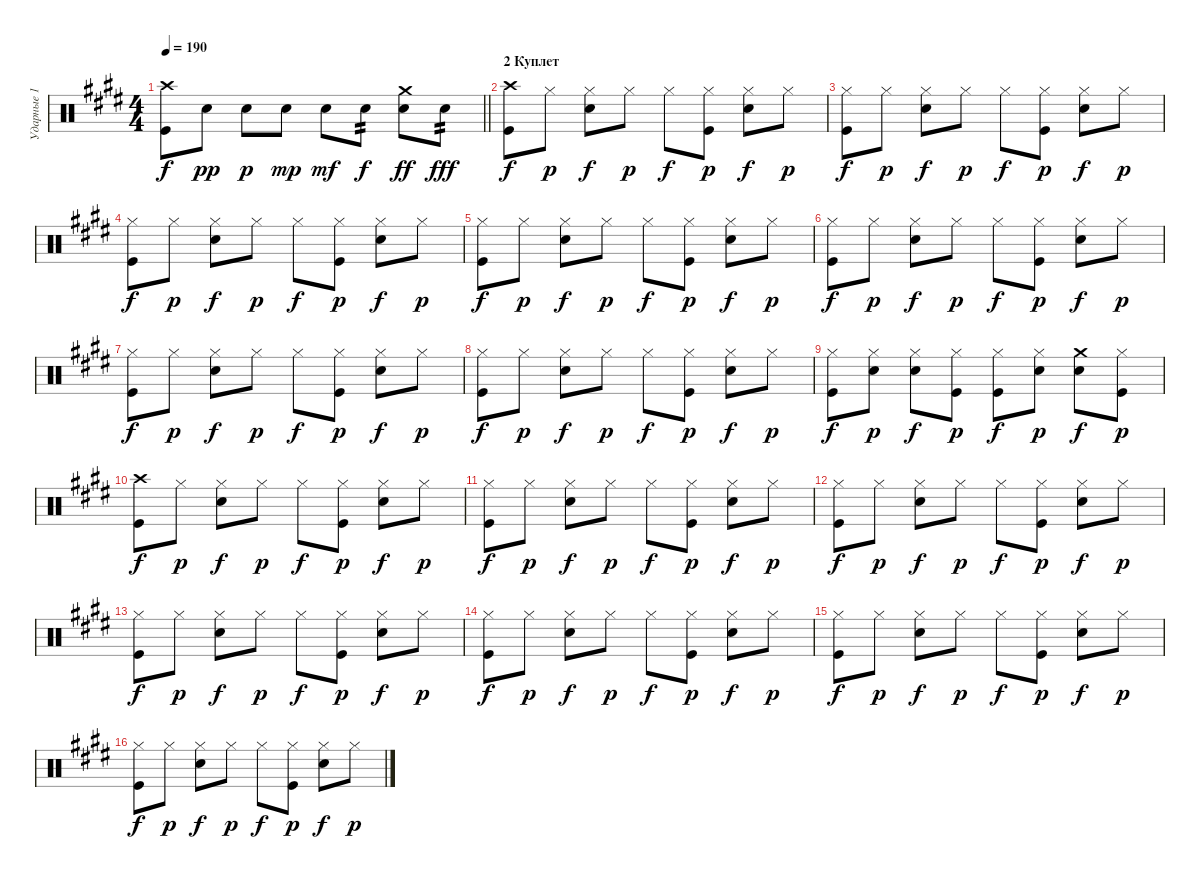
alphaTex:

\track ("Ударные 1" "Ударные 1") {instrument percussion}
\staff {score}
\articulation defaults
\ts (4 4)
\tempo 190
\clef neutral
\barLineRight lightlight
\ks c#minor
("Crash high (hit)" "Kick (hit)").8{dy f} "Snare (hit) 2".8{dy pp} "Snare (hit) 2".8{dy p} "Snare (hit) 2".8{dy mp} "Snare (hit) 2".8{dy mf} "Snare (hit) 2".8{tp 2 dy f} ("Crash medium (hit)" "Snare (hit) 2").8{dy ff} "Snare (hit) 2".8{tp 2 dy fff} |
\section ("" "2 Куплет")
("Crash high (hit)" "Kick (hit)").8{dy f} "Hi-Hat (closed)".8{dy p} ("Hi-Hat (closed)" "Snare (hit) 2").8{dy f} "Hi-Hat (closed)".8{dy p} "Hi-Hat (closed)".8{dy f} ("Hi-Hat (closed)" "Kick (hit)").8{dy p} ("Hi-Hat (closed)" "Snare (hit) 2").8{dy f} "Hi-Hat (closed)".8{dy p} |
("Hi-Hat (closed)" "Kick (hit)").8{dy f} "Hi-Hat (closed)".8{dy p} ("Hi-Hat (closed)" "Snare (hit) 2").8{dy f} "Hi-Hat (closed)".8{dy p} "Hi-Hat (closed)".8{dy f} ("Hi-Hat (closed)" "Kick (hit)").8{dy p} ("Hi-Hat (closed)" "Snare (hit) 2").8{dy f} "Hi-Hat (closed)".8{dy p} |
("Hi-Hat (closed)" "Kick (hit)").8{dy f} "Hi-Hat (closed)".8{dy p} ("Hi-Hat (closed)" "Snare (hit) 2").8{dy f} "Hi-Hat (closed)".8{dy p} "Hi-Hat (closed)".8{dy f} ("Hi-Hat (closed)" "Kick (hit)").8{dy p} ("Hi-Hat (closed)" "Snare (hit) 2").8{dy f} "Hi-Hat (closed)".8{dy p} |
("Hi-Hat (closed)" "Kick (hit)").8{dy f} "Hi-Hat (closed)".8{dy p} ("Hi-Hat (closed)" "Snare (hit) 2").8{dy f} "Hi-Hat (closed)".8{dy p} "Hi-Hat (closed)".8{dy f} ("Hi-Hat (closed)" "Kick (hit)").8{dy p} ("Hi-Hat (closed)" "Snare (hit) 2").8{dy f} "Hi-Hat (closed)".8{dy p} |
("Hi-Hat (closed)" "Kick (hit)").8{dy f} "Hi-Hat (closed)".8{dy p} ("Hi-Hat (closed)" "Snare (hit) 2").8{dy f} "Hi-Hat (closed)".8{dy p} "Hi-Hat (closed)".8{dy f} ("Hi-Hat (closed)" "Kick (hit)").8{dy p} ("Hi-Hat (closed)" "Snare (hit) 2").8{dy f} "Hi-Hat (closed)".8{dy p} |
("Hi-Hat (closed)" "Kick (hit)").8{dy f} "Hi-Hat (closed)".8{dy p} ("Hi-Hat (closed)" "Snare (hit) 2").8{dy f} "Hi-Hat (closed)".8{dy p} "Hi-Hat (closed)".8{dy f} ("Hi-Hat (closed)" "Kick (hit)").8{dy p} ("Hi-Hat (closed)" "Snare (hit) 2").8{dy f} "Hi-Hat (closed)".8{dy p} |
("Hi-Hat (closed)" "Kick (hit)").8{dy f} "Hi-Hat (closed)".8{dy p} ("Hi-Hat (closed)" "Snare (hit) 2").8{dy f} "Hi-Hat (closed)".8{dy p} "Hi-Hat (closed)".8{dy f} ("Hi-Hat (closed)" "Kick (hit)").8{dy p} ("Hi-Hat (closed)" "Snare (hit) 2").8{dy f} "Hi-Hat (closed)".8{dy p} |
("Hi-Hat (closed)" "Kick (hit)").8{dy f} ("Hi-Hat (closed)" "Snare (hit) 2").8{dy p} ("Hi-Hat (closed)" "Snare (hit) 2").8{dy f} ("Hi-Hat (closed)" "Kick (hit)").8{dy p} ("Hi-Hat (closed)" "Kick (hit)").8{dy f} ("Hi-Hat (closed)" "Snare (hit) 2").8{dy p} ("Crash medium (hit)" "Snare (hit) 2").8{dy f} ("Hi-Hat (closed)" "Kick (hit)").8{dy p} |
("Crash high (hit)" "Kick (hit)").8{dy f} "Hi-Hat (closed)".8{dy p} ("Hi-Hat (closed)" "Snare (hit) 2").8{dy f} "Hi-Hat (closed)".8{dy p} "Hi-Hat (closed)".8{dy f} ("Hi-Hat (closed)" "Kick (hit)").8{dy p} ("Hi-Hat (closed)" "Snare (hit) 2").8{dy f} "Hi-Hat (closed)".8{dy p} |
("Hi-Hat (closed)" "Kick (hit)").8{dy f} "Hi-Hat (closed)".8{dy p} ("Hi-Hat (closed)" "Snare (hit) 2").8{dy f} "Hi-Hat (closed)".8{dy p} "Hi-Hat (closed)".8{dy f} ("Hi-Hat (closed)" "Kick (hit)").8{dy p} ("Hi-Hat (closed)" "Snare (hit) 2").8{dy f} "Hi-Hat (closed)".8{dy p} |
("Hi-Hat (closed)" "Kick (hit)").8{dy f} "Hi-Hat (closed)".8{dy p} ("Hi-Hat (closed)" "Snare (hit) 2").8{dy f} "Hi-Hat (closed)".8{dy p} "Hi-Hat (closed)".8{dy f} ("Hi-Hat (closed)" "Kick (hit)").8{dy p} ("Hi-Hat (closed)" "Snare (hit) 2").8{dy f} "Hi-Hat (closed)".8{dy p} |
("Hi-Hat (closed)" "Kick (hit)").8{dy f} "Hi-Hat (closed)".8{dy p} ("Hi-Hat (closed)" "Snare (hit) 2").8{dy f} "Hi-Hat (closed)".8{dy p} "Hi-Hat (closed)".8{dy f} ("Hi-Hat (closed)" "Kick (hit)").8{dy p} ("Hi-Hat (closed)" "Snare (hit) 2").8{dy f} "Hi-Hat (closed)".8{dy p} |
("Hi-Hat (closed)" "Kick (hit)").8{dy f} "Hi-Hat (closed)".8{dy p} ("Hi-Hat (closed)" "Snare (hit) 2").8{dy f} "Hi-Hat (closed)".8{dy p} "Hi-Hat (closed)".8{dy f} ("Hi-Hat (closed)" "Kick (hit)").8{dy p} ("Hi-Hat (closed)" "Snare (hit) 2").8{dy f} "Hi-Hat (closed)".8{dy p} |
("Hi-Hat (closed)" "Kick (hit)").8{dy f} "Hi-Hat (closed)".8{dy p} ("Hi-Hat (closed)" "Snare (hit) 2").8{dy f} "Hi-Hat (closed)".8{dy p} "Hi-Hat (closed)".8{dy f} ("Hi-Hat (closed)" "Kick (hit)").8{dy p} ("Hi-Hat (closed)" "Snare (hit) 2").8{dy f} "Hi-Hat (closed)".8{dy p} |
("Hi-Hat (closed)" "Kick (hit)").8{dy f} "Hi-Hat (closed)".8{dy p} ("Hi-Hat (closed)" "Snare (hit) 2").8{dy f} "Hi-Hat (closed)".8{dy p} "Hi-Hat (closed)".8{dy f} ("Hi-Hat (closed)" "Kick (hit)").8{dy p} ("Hi-Hat (closed)" "Snare (hit) 2").8{dy f} "Hi-Hat (closed)".8{dy p}
